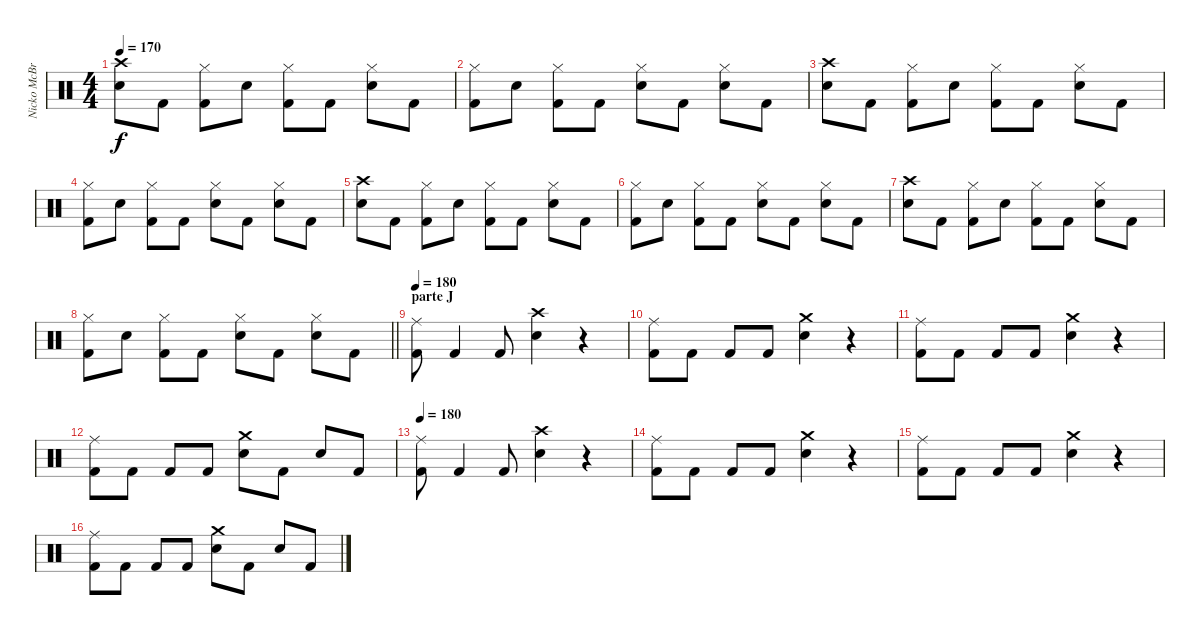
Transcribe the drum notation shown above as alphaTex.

\track ("Nicko McBrain" "Nicko McBr") {instrument percussion}
\staff {score}
\articulation defaults
\ts (4 4)
\tempo 170
\clef neutral
\ks c
("Crash high (hit)" "Snare (hit) 2").8{dy f} "Kick (hit) 2".8 ("Hi-Hat (closed)" "Kick (hit) 2").8 "Snare (hit) 2".8 ("Hi-Hat (closed)" "Kick (hit) 2").8 "Kick (hit) 2".8 ("Hi-Hat (closed)" "Snare (hit) 2").8 "Kick (hit) 2".8 |
("Hi-Hat (closed)" "Kick (hit) 2").8 "Snare (hit) 2".8 ("Hi-Hat (closed)" "Kick (hit) 2").8 "Kick (hit) 2".8 ("Hi-Hat (closed)" "Snare (hit) 2").8 "Kick (hit) 2".8 ("Hi-Hat (closed)" "Snare (hit) 2").8 "Kick (hit) 2".8 |
("Crash high (hit)" "Snare (hit) 2").8 "Kick (hit) 2".8 ("Hi-Hat (closed)" "Kick (hit) 2").8 "Snare (hit) 2".8 ("Hi-Hat (closed)" "Kick (hit) 2").8 "Kick (hit) 2".8 ("Hi-Hat (closed)" "Snare (hit) 2").8 "Kick (hit) 2".8 |
("Hi-Hat (closed)" "Kick (hit) 2").8 "Snare (hit) 2".8 ("Hi-Hat (closed)" "Kick (hit) 2").8 "Kick (hit) 2".8 ("Hi-Hat (closed)" "Snare (hit) 2").8 "Kick (hit) 2".8 ("Hi-Hat (closed)" "Snare (hit) 2").8 "Kick (hit) 2".8 |
("Crash high (hit)" "Snare (hit) 2").8 "Kick (hit) 2".8 ("Hi-Hat (closed)" "Kick (hit) 2").8 "Snare (hit) 2".8 ("Hi-Hat (closed)" "Kick (hit) 2").8 "Kick (hit) 2".8 ("Hi-Hat (closed)" "Snare (hit) 2").8 "Kick (hit) 2".8 |
("Hi-Hat (closed)" "Kick (hit) 2").8 "Snare (hit) 2".8 ("Hi-Hat (closed)" "Kick (hit) 2").8 "Kick (hit) 2".8 ("Hi-Hat (closed)" "Snare (hit) 2").8 "Kick (hit) 2".8 ("Hi-Hat (closed)" "Snare (hit) 2").8 "Kick (hit) 2".8 |
("Crash high (hit)" "Snare (hit) 2").8 "Kick (hit) 2".8 ("Hi-Hat (closed)" "Kick (hit) 2").8 "Snare (hit) 2".8 ("Hi-Hat (closed)" "Kick (hit) 2").8 "Kick (hit) 2".8 ("Hi-Hat (closed)" "Snare (hit) 2").8 "Kick (hit) 2".8 |
\barLineRight lightlight
("Hi-Hat (closed)" "Kick (hit) 2").8 "Snare (hit) 2".8 ("Hi-Hat (closed)" "Kick (hit) 2").8 "Kick (hit) 2".8 ("Hi-Hat (closed)" "Snare (hit) 2").8 "Kick (hit) 2".8 ("Hi-Hat (closed)" "Snare (hit) 2").8 "Kick (hit) 2".8 |
\section ("" "parte J")
\tempo 180
("Ride (middle)" "Kick (hit) 2").8 "Kick (hit) 2".4 "Kick (hit) 2".8 ("Crash high (hit)" "Snare (hit) 2").4 r.4 |
("Ride (middle)" "Kick (hit) 2").8 "Kick (hit) 2".8 "Kick (hit) 2".8 "Kick (hit) 2".8 ("Crash medium (hit)" "Snare (hit) 2").4 r.4 |
("Ride (middle)" "Kick (hit) 2").8 "Kick (hit) 2".8 "Kick (hit) 2".8 "Kick (hit) 2".8 ("Crash medium (hit)" "Snare (hit) 2").4 r.4 |
("Ride (middle)" "Kick (hit) 2").8 "Kick (hit) 2".8 "Kick (hit) 2".8 "Kick (hit) 2".8 ("Crash medium (hit)" "Snare (hit) 2").8 "Kick (hit) 2".8 "Snare (hit) 2".8 "Kick (hit) 2".8 |
\tempo 180
("Ride (middle)" "Kick (hit) 2").8 "Kick (hit) 2".4 "Kick (hit) 2".8 ("Crash high (hit)" "Snare (hit) 2").4 r.4 |
("Ride (middle)" "Kick (hit) 2").8 "Kick (hit) 2".8 "Kick (hit) 2".8 "Kick (hit) 2".8 ("Crash medium (hit)" "Snare (hit) 2").4 r.4 |
("Ride (middle)" "Kick (hit) 2").8 "Kick (hit) 2".8 "Kick (hit) 2".8 "Kick (hit) 2".8 ("Crash medium (hit)" "Snare (hit) 2").4 r.4 |
("Ride (middle)" "Kick (hit) 2").8 "Kick (hit) 2".8 "Kick (hit) 2".8 "Kick (hit) 2".8 ("Crash medium (hit)" "Snare (hit) 2").8 "Kick (hit) 2".8 "Snare (hit) 2".8 "Kick (hit) 2".8
